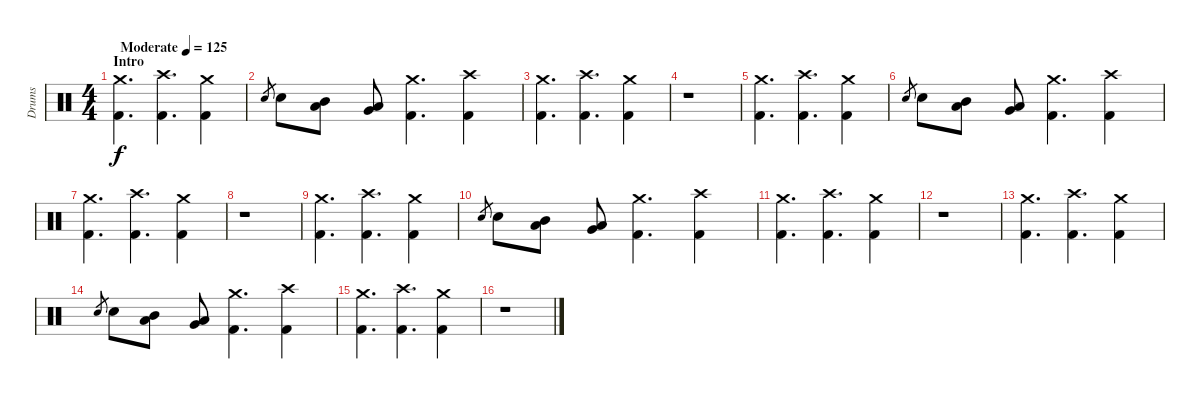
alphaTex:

\track ("Drums" "Drums") {instrument percussion}
\staff {score}
\articulation defaults
\ts (4 4)
\section ("" "Intro")
\tempo (125 "Moderate")
\clef neutral
\ks c
("Crash medium (hit)" "Kick (hit) 2").4{d dy f} ("Crash high (hit)" "Kick (hit) 2").4{d} ("Crash medium (hit)" "Kick (hit) 2").4 |
"Electric Snare (hit)".8{gr} "Electric Snare (hit)".8 ("Mid Tom (hit)" "Low Tom (hit)").8 ("Low Tom (hit)" "Very Low Tom (hit)").8 ("Crash medium (hit)" "Kick (hit) 2").4{d} ("Crash high (hit)" "Kick (hit) 2").4 |
("Crash medium (hit)" "Kick (hit) 2").4{d} ("Crash high (hit)" "Kick (hit) 2").4{d} ("Crash medium (hit)" "Kick (hit) 2").4 |
r.1 |
("Crash medium (hit)" "Kick (hit) 2").4{d} ("Crash high (hit)" "Kick (hit) 2").4{d} ("Crash medium (hit)" "Kick (hit) 2").4 |
"Electric Snare (hit)".8{gr} "Electric Snare (hit)".8 ("Mid Tom (hit)" "Low Tom (hit)").8 ("Low Tom (hit)" "Very Low Tom (hit)").8 ("Crash medium (hit)" "Kick (hit) 2").4{d} ("Crash high (hit)" "Kick (hit) 2").4 |
("Crash medium (hit)" "Kick (hit) 2").4{d} ("Crash high (hit)" "Kick (hit) 2").4{d} ("Crash medium (hit)" "Kick (hit) 2").4 |
r.1 |
("Crash medium (hit)" "Kick (hit) 2").4{d} ("Crash high (hit)" "Kick (hit) 2").4{d} ("Crash medium (hit)" "Kick (hit) 2").4 |
"Electric Snare (hit)".8{gr} "Electric Snare (hit)".8 ("Mid Tom (hit)" "Low Tom (hit)").8 ("Low Tom (hit)" "Very Low Tom (hit)").8 ("Crash medium (hit)" "Kick (hit) 2").4{d} ("Crash high (hit)" "Kick (hit) 2").4 |
("Crash medium (hit)" "Kick (hit) 2").4{d} ("Crash high (hit)" "Kick (hit) 2").4{d} ("Crash medium (hit)" "Kick (hit) 2").4 |
r.1 |
("Crash medium (hit)" "Kick (hit) 2").4{d} ("Crash high (hit)" "Kick (hit) 2").4{d} ("Crash medium (hit)" "Kick (hit) 2").4 |
"Electric Snare (hit)".8{gr} "Electric Snare (hit)".8 ("Mid Tom (hit)" "Low Tom (hit)").8 ("Low Tom (hit)" "Very Low Tom (hit)").8 ("Crash medium (hit)" "Kick (hit) 2").4{d} ("Crash high (hit)" "Kick (hit) 2").4 |
("Crash medium (hit)" "Kick (hit) 2").4{d} ("Crash high (hit)" "Kick (hit) 2").4{d} ("Crash medium (hit)" "Kick (hit) 2").4 |
r.1
